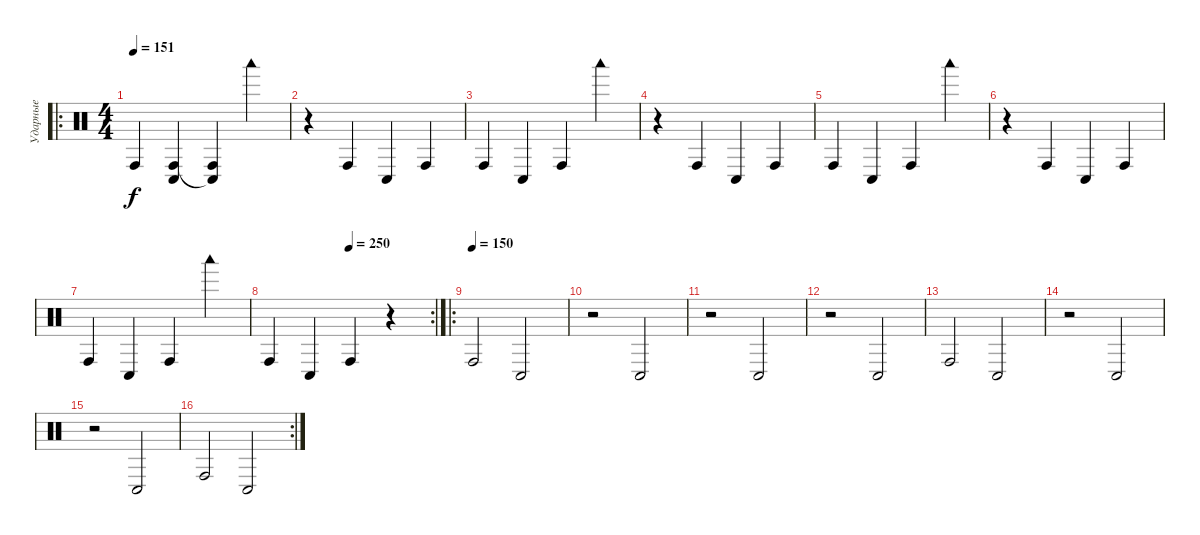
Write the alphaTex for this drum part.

\track ("Ударные" "Ударные") {instrument percussion}
\staff {score}
\articulation defaults
\ro
\ts (4 4)
\tempo 151
\clef neutral
\ks c "Conga high (hit)".4{dy f}
("Conga low (hit)" "Conga high (hit)").4 ("Conga high (hit)" "Conga low (hit)"{t}).4 "Woodblock low (hit)".4 |
r.4 "Conga high (hit)".4 "Conga low (hit)".4 "Conga high (hit)".4 |
"Conga high (hit)".4 "Conga low (hit)".4 "Conga high (hit)".4 "Woodblock low (hit)".4 |
r.4 "Conga high (hit)".4 "Conga low (hit)".4 "Conga high (hit)".4 |
"Conga high (hit)".4 "Conga low (hit)".4 "Conga high (hit)".4 "Woodblock low (hit)".4 |
r.4 "Conga high (hit)".4 "Conga low (hit)".4 "Conga high (hit)".4 |
"Conga high (hit)".4 "Conga low (hit)".4 "Conga high (hit)".4 "Woodblock low (hit)".4 |
\rc 2
\tempo (250 0.5)
"Conga high (hit)".4 "Conga low (hit)".4 "Conga high (hit)".4 r.4 |
\ro
\tempo (150)
"Conga high (hit)".2 "Conga low (hit)".2 |
r.2 "Conga low (hit)".2 |
r.2 "Conga low (hit)".2 |
r.2 "Conga low (hit)".2 |
"Conga high (hit)".2 "Conga low (hit)".2 |
r.2 "Conga low (hit)".2 |
r.2 "Conga low (hit)".2 |
\rc 2 "Conga high (hit)".2 "Conga low (hit)".2
